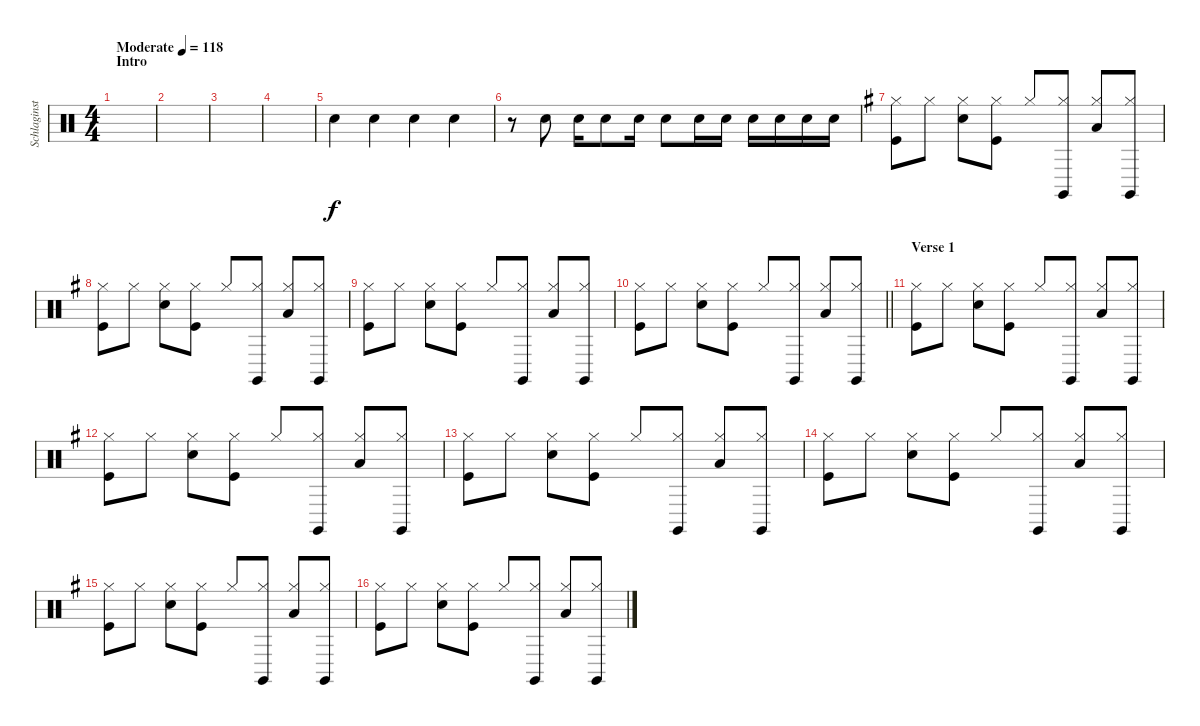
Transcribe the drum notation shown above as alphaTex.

\track ("Schlaginstrumente - Auswahl" "Schlaginst") {instrument percussion}
\staff {score}
\articulation defaults
\ts (4 4)
\section ("" "Intro")
\tempo (118 "Moderate")
\clef neutral
\ks c
|
|
|
|
"Hand Clap (hit)".4 "Hand Clap (hit)".4 "Hand Clap (hit)".4 "Hand Clap (hit)".4 |
r.8 "Snare (hit) 2".8 "Snare (hit) 2".16 "Snare (hit) 2".8 "Snare (hit) 2".16 "Snare (hit) 2".8 "Snare (hit) 2".16 "Snare (hit) 2".16 "Snare (hit) 2".16 "Snare (hit) 2".16 "Snare (hit) 2".16 "Snare (hit) 2".16 |
\ks g
("Hi-Hat (closed)" "Kick (hit)").8 "Hi-Hat (closed)".8 ("Hi-Hat (closed)" "Electric Snare (hit)").8 ("Hi-Hat (closed)" "Kick (hit)").8 "Hi-Hat (closed)".8 ("Hi-Hat (closed)" "Claves (hit)").8 ("Hi-Hat (closed)" "Low Tom (hit)").8 ("Hi-Hat (closed)" "Claves (hit)").8 |
("Hi-Hat (closed)" "Kick (hit)").8 "Hi-Hat (closed)".8 ("Hi-Hat (closed)" "Electric Snare (hit)").8 ("Hi-Hat (closed)" "Kick (hit)").8 "Hi-Hat (closed)".8 ("Hi-Hat (closed)" "Claves (hit)").8 ("Hi-Hat (closed)" "Low Tom (hit)").8 ("Hi-Hat (closed)" "Claves (hit)").8 |
("Hi-Hat (closed)" "Kick (hit)").8 "Hi-Hat (closed)".8 ("Hi-Hat (closed)" "Electric Snare (hit)").8 ("Hi-Hat (closed)" "Kick (hit)").8 "Hi-Hat (closed)".8 ("Hi-Hat (closed)" "Claves (hit)").8 ("Hi-Hat (closed)" "Low Tom (hit)").8 ("Hi-Hat (closed)" "Claves (hit)").8 |
\barLineRight lightlight
("Hi-Hat (closed)" "Kick (hit)").8 "Hi-Hat (closed)".8 ("Hi-Hat (closed)" "Electric Snare (hit)").8 ("Hi-Hat (closed)" "Kick (hit)").8 "Hi-Hat (closed)".8 ("Hi-Hat (closed)" "Claves (hit)").8 ("Hi-Hat (closed)" "Low Tom (hit)").8 ("Hi-Hat (closed)" "Claves (hit)").8 |
\section ("" "Verse 1")
("Hi-Hat (closed)" "Kick (hit)").8 "Hi-Hat (closed)".8 ("Hi-Hat (closed)" "Electric Snare (hit)").8 ("Hi-Hat (closed)" "Kick (hit)").8 "Hi-Hat (closed)".8 ("Hi-Hat (closed)" "Claves (hit)").8 ("Hi-Hat (closed)" "Low Tom (hit)").8 ("Hi-Hat (closed)" "Claves (hit)").8 |
("Hi-Hat (closed)" "Kick (hit)").8 "Hi-Hat (closed)".8 ("Hi-Hat (closed)" "Electric Snare (hit)").8 ("Hi-Hat (closed)" "Kick (hit)").8 "Hi-Hat (closed)".8 ("Hi-Hat (closed)" "Claves (hit)").8 ("Hi-Hat (closed)" "Low Tom (hit)").8 ("Hi-Hat (closed)" "Claves (hit)").8 |
("Hi-Hat (closed)" "Kick (hit)").8 "Hi-Hat (closed)".8 ("Hi-Hat (closed)" "Electric Snare (hit)").8 ("Hi-Hat (closed)" "Kick (hit)").8 "Hi-Hat (closed)".8 ("Hi-Hat (closed)" "Claves (hit)").8 ("Hi-Hat (closed)" "Low Tom (hit)").8 ("Hi-Hat (closed)" "Claves (hit)").8 |
("Hi-Hat (closed)" "Kick (hit)").8 "Hi-Hat (closed)".8 ("Hi-Hat (closed)" "Electric Snare (hit)").8 ("Hi-Hat (closed)" "Kick (hit)").8 "Hi-Hat (closed)".8 ("Hi-Hat (closed)" "Claves (hit)").8 ("Hi-Hat (closed)" "Low Tom (hit)").8 ("Hi-Hat (closed)" "Claves (hit)").8 |
("Hi-Hat (closed)" "Kick (hit)").8 "Hi-Hat (closed)".8 ("Hi-Hat (closed)" "Electric Snare (hit)").8 ("Hi-Hat (closed)" "Kick (hit)").8 "Hi-Hat (closed)".8 ("Hi-Hat (closed)" "Claves (hit)").8 ("Hi-Hat (closed)" "Low Tom (hit)").8 ("Hi-Hat (closed)" "Claves (hit)").8 |
("Hi-Hat (closed)" "Kick (hit)").8 "Hi-Hat (closed)".8 ("Hi-Hat (closed)" "Electric Snare (hit)").8 ("Hi-Hat (closed)" "Kick (hit)").8 "Hi-Hat (closed)".8 ("Hi-Hat (closed)" "Claves (hit)").8 ("Hi-Hat (closed)" "Low Tom (hit)").8 ("Hi-Hat (closed)" "Claves (hit)").8
